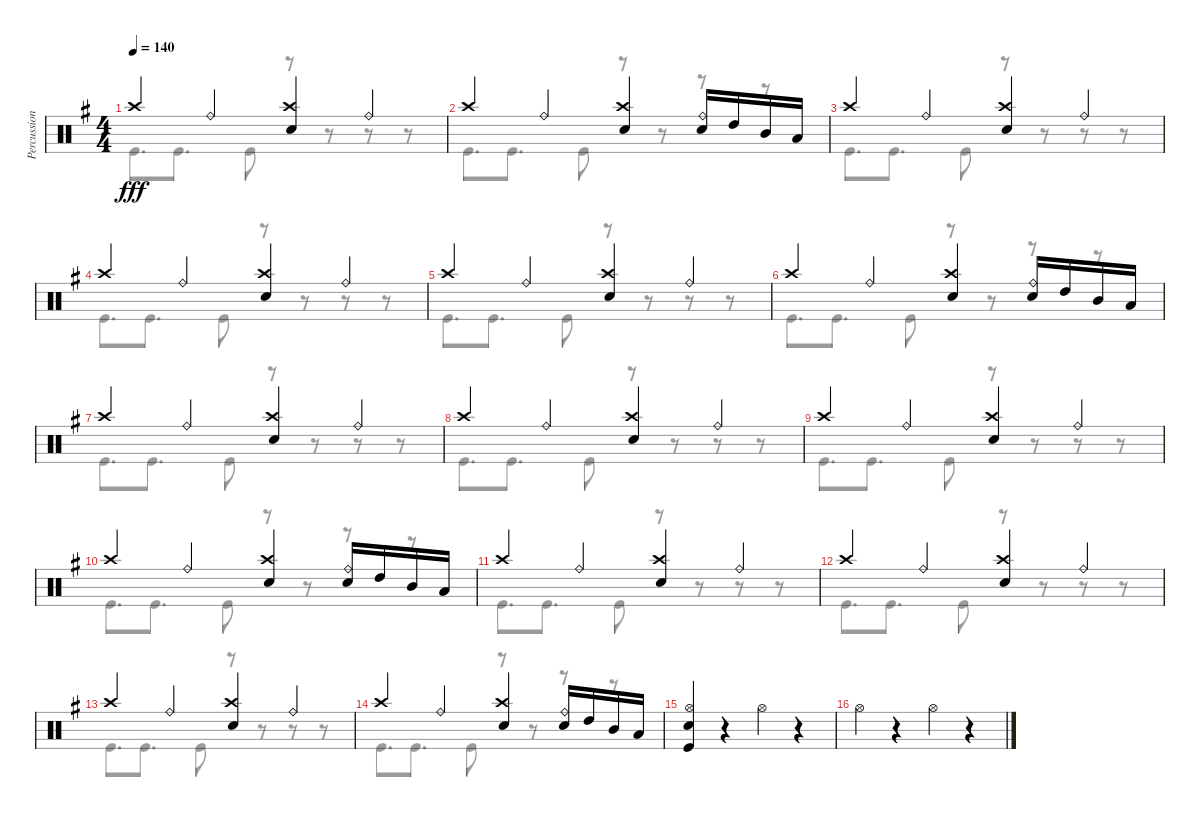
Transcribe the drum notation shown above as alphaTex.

\track ("Percussion" "Percussion") {instrument percussion}
\staff {score}
\articulation defaults
\voice
\ts (4 4)
\tempo 140
\clef neutral
\ks eminor "Crash high (hit)".4{dy fff} "Ride (bell)".4
("Crash high (hit)" "Snare (hit) 2").4 "Ride (bell)".4 |
"Crash high (hit)".4 "Ride (bell)".4 ("Crash high (hit)" "Snare (hit) 2").4 ("Ride (bell)" "Snare (hit) 2").16 "High Tom (hit)".16 "Mid Tom (hit)".16 "Low Tom (hit)".16 |
"Crash high (hit)".4 "Ride (bell)".4 ("Crash high (hit)" "Snare (hit) 2").4 "Ride (bell)".4 |
"Crash high (hit)".4 "Ride (bell)".4 ("Crash high (hit)" "Snare (hit) 2").4 "Ride (bell)".4 |
"Crash high (hit)".4 "Ride (bell)".4 ("Crash high (hit)" "Snare (hit) 2").4 "Ride (bell)".4 |
"Crash high (hit)".4 "Ride (bell)".4 ("Crash high (hit)" "Snare (hit) 2").4 ("Ride (bell)" "Snare (hit) 2").16 "High Tom (hit)".16 "Mid Tom (hit)".16 "Low Tom (hit)".16 |
"Crash high (hit)".4 "Ride (bell)".4 ("Crash high (hit)" "Snare (hit) 2").4 "Ride (bell)".4 |
"Crash high (hit)".4 "Ride (bell)".4 ("Crash high (hit)" "Snare (hit) 2").4 "Ride (bell)".4 |
"Crash high (hit)".4 "Ride (bell)".4 ("Crash high (hit)" "Snare (hit) 2").4 "Ride (bell)".4 |
"Crash high (hit)".4 "Ride (bell)".4 ("Crash high (hit)" "Snare (hit) 2").4 ("Ride (bell)" "Snare (hit) 2").16 "High Tom (hit)".16 "Mid Tom (hit)".16 "Low Tom (hit)".16 |
"Crash high (hit)".4 "Ride (bell)".4 ("Crash high (hit)" "Snare (hit) 2").4 "Ride (bell)".4 |
"Crash high (hit)".4 "Ride (bell)".4 ("Crash high (hit)" "Snare (hit) 2").4 "Ride (bell)".4 |
"Crash high (hit)".4 "Ride (bell)".4 ("Crash high (hit)" "Snare (hit) 2").4 "Ride (bell)".4 |
"Crash high (hit)".4 "Ride (bell)".4 ("Crash high (hit)" "Snare (hit) 2").4 ("Ride (bell)" "Snare (hit) 2").16 "High Tom (hit)".16 "Mid Tom (hit)".16 "Low Tom (hit)".16 |
("Hi-Hat (open)" "Snare (hit) 2" "Kick (hit)").4 r.4 "Hi-Hat (open)".4 r.4 |
"Hi-Hat (open)".4 r.4 "Hi-Hat (open)".4 r.4
\voice
\clef neutral
\ottava regular
\simile none
\ks eminor "Kick (hit)".8{d dy fff} "Kick (hit)".8{d} "Kick (hit)".8
r.8 r.8 r.8 r.8 |
"Kick (hit)".8{d} "Kick (hit)".8{d} "Kick (hit)".8 r.8 r.8 r.8 r.8 |
"Kick (hit)".8{d} "Kick (hit)".8{d} "Kick (hit)".8 r.8 r.8 r.8 r.8 |
"Kick (hit)".8{d} "Kick (hit)".8{d} "Kick (hit)".8 r.8 r.8 r.8 r.8 |
"Kick (hit)".8{d} "Kick (hit)".8{d} "Kick (hit)".8 r.8 r.8 r.8 r.8 |
"Kick (hit)".8{d} "Kick (hit)".8{d} "Kick (hit)".8 r.8 r.8 r.8 r.8 |
"Kick (hit)".8{d} "Kick (hit)".8{d} "Kick (hit)".8 r.8 r.8 r.8 r.8 |
"Kick (hit)".8{d} "Kick (hit)".8{d} "Kick (hit)".8 r.8 r.8 r.8 r.8 |
"Kick (hit)".8{d} "Kick (hit)".8{d} "Kick (hit)".8 r.8 r.8 r.8 r.8 |
"Kick (hit)".8{d} "Kick (hit)".8{d} "Kick (hit)".8 r.8 r.8 r.8 r.8 |
"Kick (hit)".8{d} "Kick (hit)".8{d} "Kick (hit)".8 r.8 r.8 r.8 r.8 |
"Kick (hit)".8{d} "Kick (hit)".8{d} "Kick (hit)".8 r.8 r.8 r.8 r.8 |
"Kick (hit)".8{d} "Kick (hit)".8{d} "Kick (hit)".8 r.8 r.8 r.8 r.8 |
"Kick (hit)".8{d} "Kick (hit)".8{d} "Kick (hit)".8 r.8 r.8 r.8 r.8 |
|
